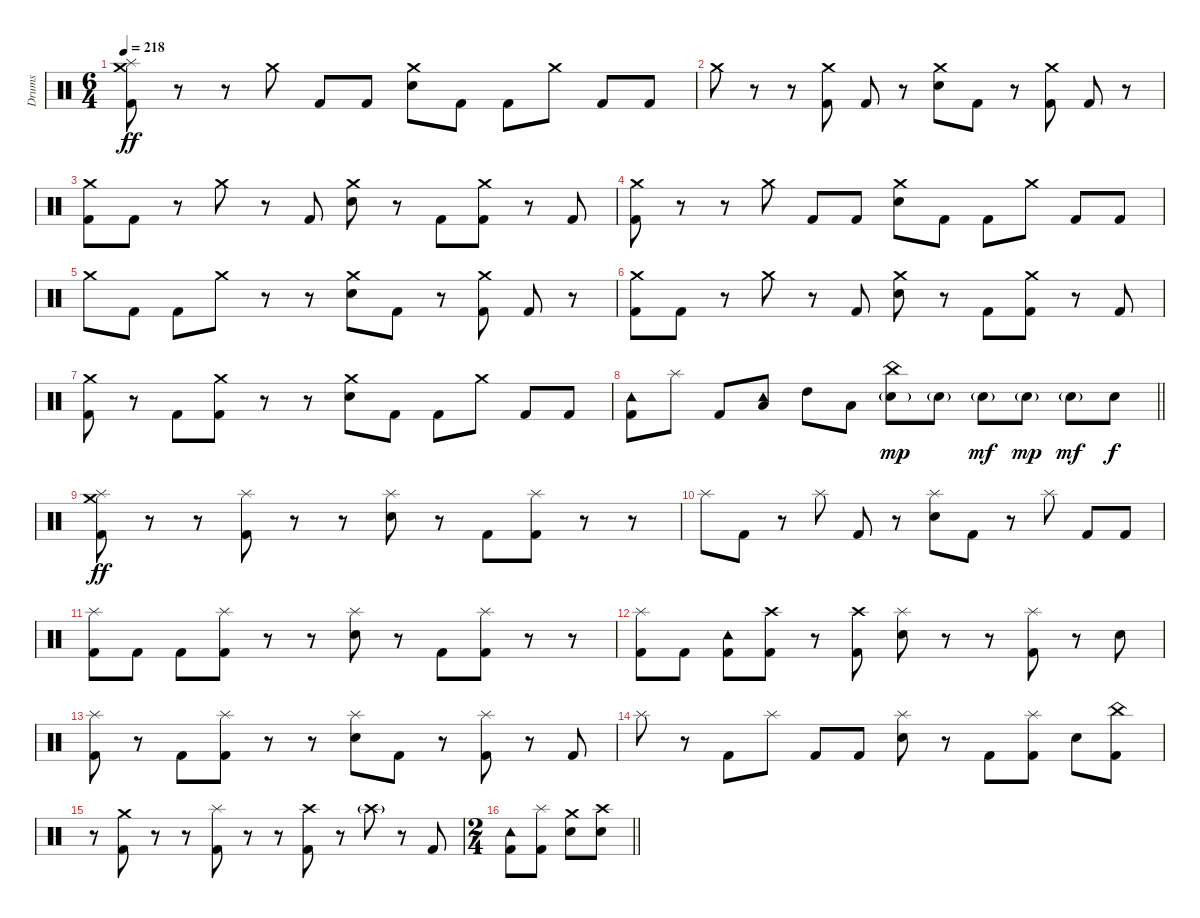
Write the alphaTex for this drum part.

\track ("Drums" "Drums") {instrument percussion}
\staff {score}
\articulation defaults
\ts (6 4)
\tempo 218
\clef neutral
\ks c
("Crash medium (hit)" "Splash (hit)" "Kick (hit) 2").8{dy ff} r.8 r.8 "Crash medium (hit)".8 "Kick (hit) 2".8 "Kick (hit) 2".8 ("Crash medium (hit)" "Electric Snare (hit)").8 "Kick (hit) 2".8 "Kick (hit) 2".8 "Crash medium (hit)".8 "Kick (hit) 2".8 "Kick (hit) 2".8 |
"Crash medium (hit)".8 r.8 r.8 ("Crash medium (hit)" "Kick (hit) 2").8 "Kick (hit) 2".8 r.8 ("Crash medium (hit)" "Electric Snare (hit)").8 "Kick (hit) 2".8 r.8 ("Crash medium (hit)" "Kick (hit) 2").8 "Kick (hit) 2".8 r.8 |
("Crash medium (hit)" "Kick (hit) 2").8 "Kick (hit) 2".8 r.8 "Crash medium (hit)".8 r.8 "Kick (hit) 2".8 ("Crash medium (hit)" "Electric Snare (hit)").8 r.8 "Kick (hit) 2".8 ("Crash medium (hit)" "Kick (hit) 2").8 r.8 "Kick (hit) 2".8 |
("Crash medium (hit)" "Kick (hit) 2").8 r.8 r.8 "Crash medium (hit)".8 "Kick (hit) 2".8 "Kick (hit) 2".8 ("Crash medium (hit)" "Electric Snare (hit)").8 "Kick (hit) 2".8 "Kick (hit) 2".8 "Crash medium (hit)".8 "Kick (hit) 2".8 "Kick (hit) 2".8 |
"Crash medium (hit)".8 "Kick (hit) 2".8 "Kick (hit) 2".8 "Crash medium (hit)".8 r.8 r.8 ("Crash medium (hit)" "Electric Snare (hit)").8 "Kick (hit) 2".8 r.8 ("Crash medium (hit)" "Kick (hit) 2").8 "Kick (hit) 2".8 r.8 |
("Crash medium (hit)" "Kick (hit) 2").8 "Kick (hit) 2".8 r.8 "Crash medium (hit)".8 r.8 "Kick (hit) 2".8 ("Crash medium (hit)" "Electric Snare (hit)").8 r.8 "Kick (hit) 2".8 ("Crash medium (hit)" "Kick (hit) 2").8 r.8 "Kick (hit) 2".8 |
("Crash medium (hit)" "Kick (hit) 2").8 r.8 "Kick (hit) 2".8 ("Crash medium (hit)" "Kick (hit) 2").8 r.8 r.8 ("Crash medium (hit)" "Electric Snare (hit)").8 "Kick (hit) 2".8 "Kick (hit) 2".8 "Crash medium (hit)".8 "Kick (hit) 2".8 "Kick (hit) 2".8 |
\barLineRight lightlight
("Tambourine (hit)" "Kick (hit) 2").8 "Splash (hit)".8 "Kick (hit) 2".8 ("Tambourine (hit)" "Low Tom (hit)").8 "High Tom (hit)".8 "Low Tom (hit)".8 ("China (hit)" "Electric Snare (hit)"{g}).8{dy mp} "Electric Snare (hit)"{g}.8 "Electric Snare (hit)"{g}.8{dy mf} "Electric Snare (hit)"{g}.8{dy mp} "Electric Snare (hit)"{g}.8{dy mf} "Electric Snare (hit)".8{dy f} |
\section ("" "")
("Crash medium (hit)" "Splash (hit)" "Kick (hit) 2").8{dy ff} r.8 r.8 ("Splash (hit)" "Kick (hit) 2").8 r.8 r.8 ("Splash (hit)" "Electric Snare (hit)").8 r.8 "Kick (hit) 2".8 ("Splash (hit)" "Kick (hit) 2").8 r.8 r.8 |
"Splash (hit)".8 "Kick (hit) 2".8 r.8 "Splash (hit)".8 "Kick (hit) 2".8 r.8 ("Splash (hit)" "Electric Snare (hit)").8 "Kick (hit) 2".8 r.8 "Splash (hit)".8 "Kick (hit) 2".8 "Kick (hit) 2".8 |
("Splash (hit)" "Kick (hit) 2").8 "Kick (hit) 2".8 "Kick (hit) 2".8 ("Splash (hit)" "Kick (hit) 2").8 r.8 r.8 ("Splash (hit)" "Electric Snare (hit)").8 r.8 "Kick (hit) 2".8 ("Splash (hit)" "Kick (hit) 2").8 r.8 r.8 |
("Splash (hit)" "Kick (hit) 2").8 "Kick (hit) 2".8 ("Tambourine (hit)" "Kick (hit) 2").8 ("Crash high (hit)" "Kick (hit) 2").8 r.8 ("Crash high (hit)" "Kick (hit) 2").8 ("Splash (hit)" "Electric Snare (hit)").8 r.8 r.8 ("Splash (hit)" "Kick (hit) 2").8 r.8 "Electric Snare (hit)".8 |
("Splash (hit)" "Kick (hit) 2").8 r.8 "Kick (hit) 2".8 ("Splash (hit)" "Kick (hit) 2").8 r.8 r.8 ("Splash (hit)" "Electric Snare (hit)").8 "Kick (hit) 2".8 r.8 ("Splash (hit)" "Kick (hit) 2").8 r.8 "Kick (hit) 2".8 |
"Splash (hit)".8 r.8 "Kick (hit) 2".8 "Splash (hit)".8 "Kick (hit) 2".8 "Kick (hit) 2".8 ("Splash (hit)" "Electric Snare (hit)").8 r.8 "Kick (hit) 2".8 ("Splash (hit)" "Kick (hit) 2").8 "Electric Snare (hit)".8 ("China (hit)" "Kick (hit) 2").8 |
r.8 ("Crash medium (hit)" "Kick (hit) 2").8 r.8 r.8 ("Splash (hit)" "Kick (hit) 2").8 r.8 r.8 ("Crash high (hit)" "Kick (hit) 2").8 r.8 "Crash high (hit)"{g}.8 r.8 "Kick (hit) 2".8 |
\ts (2 4)
\barLineRight lightlight
("Tambourine (hit)" "Kick (hit) 2").8 ("Splash (hit)" "Kick (hit) 2").8 ("Crash medium (hit)" "Electric Snare (hit)").8 ("Crash high (hit)" "Electric Snare (hit)").8
